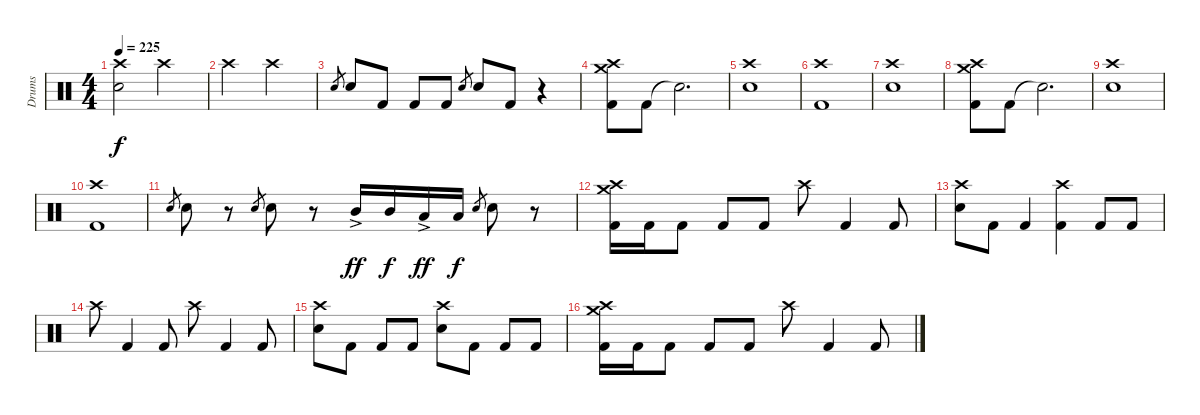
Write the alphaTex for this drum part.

\track ("Drums" "Drums") {instrument percussion}
\staff {score}
\articulation defaults
\ts (4 4)
\tempo 225
\clef neutral
\ks c
("Crash high (hit)" "Electric Snare (hit)").2{dy f} "Crash high (hit)".2 |
"Crash high (hit)".2 "Crash high (hit)".2 |
"Electric Snare (hit)".8{gr} "Electric Snare (hit)".8 "Kick (hit) 2".8 "Kick (hit) 2".8 "Kick (hit) 2".8 "Electric Snare (hit)".8{gr} "Electric Snare (hit)".8 "Kick (hit) 2".8 r.4 |
("Crash medium (hit)" "Crash high (hit)" "Kick (hit) 2").8 "Kick (hit) 2".8 "Snare (hit)"{t}.2{d} |
("Crash high (hit)" "Electric Snare (hit)").1 |
("Crash high (hit)" "Kick (hit) 2").1 |
("Crash high (hit)" "Electric Snare (hit)").1 |
("Crash medium (hit)" "Crash high (hit)" "Kick (hit) 2").8 "Kick (hit) 2".8 "Snare (hit)"{t}.2{d} |
("Crash high (hit)" "Electric Snare (hit)").1 |
("Crash high (hit)" "Kick (hit) 2").1 |
"Electric Snare (hit)".8{gr} "Electric Snare (hit)".8 r.8 "Electric Snare (hit)".8{gr} "Electric Snare (hit)".8 r.8 "Mid Tom (hit)"{ac}.16{dy ff} "Mid Tom (hit)".16{dy f} "Low Tom (hit)"{ac}.16{dy ff} "Low Tom (hit)".16{dy f} "Electric Snare (hit)".8{gr} "Electric Snare (hit)".8 r.8 |
("Crash medium (hit)" "Crash high (hit)" "Kick (hit) 2").16 "Kick (hit) 2".16 "Kick (hit) 2".8 "Kick (hit) 2".8 "Kick (hit) 2".8 "Crash high (hit)".8 "Kick (hit) 2".4 "Kick (hit) 2".8 |
("Crash high (hit)" "Electric Snare (hit)").8 "Kick (hit) 2".8 "Kick (hit) 2".4 ("Crash high (hit)" "Kick (hit) 2").4 "Kick (hit) 2".8 "Kick (hit) 2".8 |
"Crash high (hit)".8 "Kick (hit) 2".4 "Kick (hit) 2".8 "Crash high (hit)".8 "Kick (hit) 2".4 "Kick (hit) 2".8 |
("Crash high (hit)" "Electric Snare (hit)").8 "Kick (hit) 2".8 "Kick (hit) 2".8 "Kick (hit) 2".8 ("Crash high (hit)" "Electric Snare (hit)").8 "Kick (hit) 2".8 "Kick (hit) 2".8 "Kick (hit) 2".8 |
("Crash medium (hit)" "Crash high (hit)" "Kick (hit) 2").16 "Kick (hit) 2".16 "Kick (hit) 2".8 "Kick (hit) 2".8 "Kick (hit) 2".8 "Crash high (hit)".8 "Kick (hit) 2".4 "Kick (hit) 2".8
